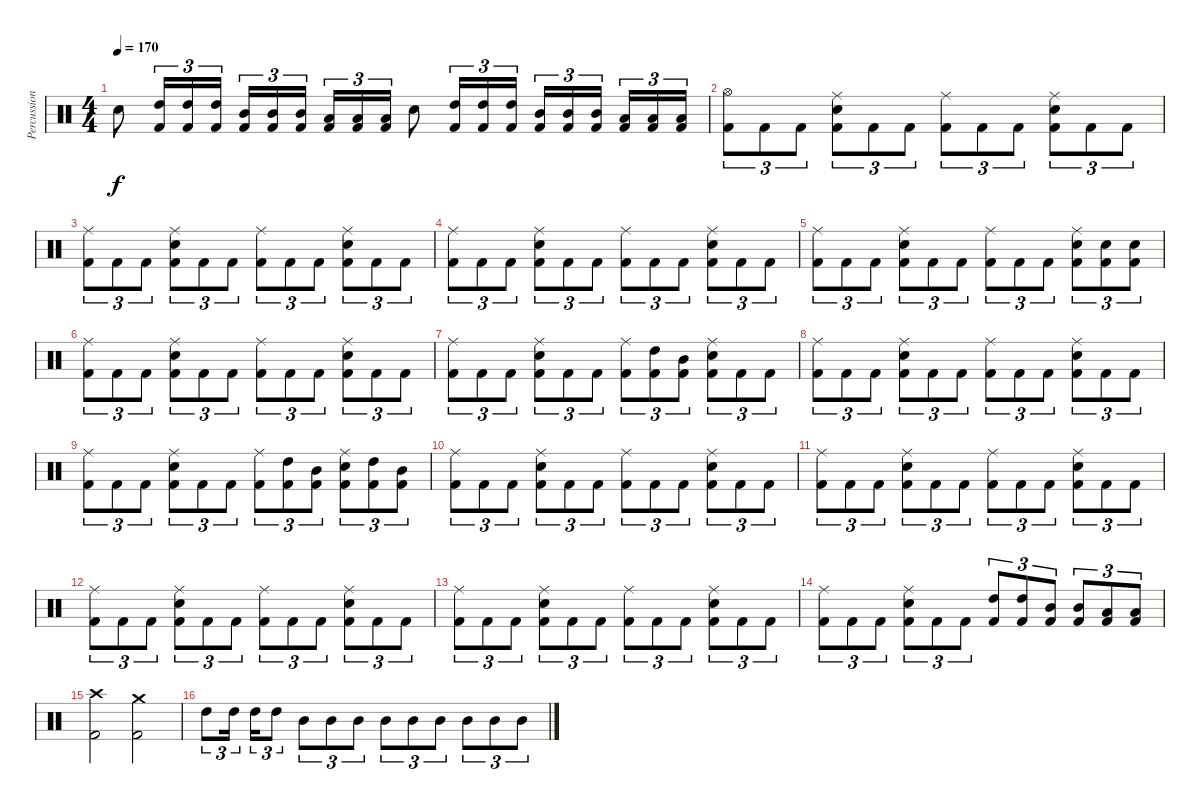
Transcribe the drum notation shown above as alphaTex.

\track ("Percussions" "Percussion") {instrument percussion}
\staff {score}
\articulation defaults
\ts (4 4)
\tempo 170
\clef neutral
\ks c "Snare (hit) 2".8{dy f}
("High Tom (hit)" "Kick (hit) 2").16{tu (3 2)} ("High Tom (hit)" "Kick (hit) 2").16{tu (3 2)} ("High Tom (hit)" "Kick (hit) 2").16{tu (3 2)} ("Mid Tom (hit)" "Kick (hit) 2").16{tu (3 2)} ("Mid Tom (hit)" "Kick (hit) 2").16{tu (3 2)} ("Mid Tom (hit)" "Kick (hit) 2").16{tu (3 2)} ("Low Tom (hit)" "Kick (hit) 2").16{tu (3 2)} ("Low Tom (hit)" "Kick (hit) 2").16{tu (3 2)} ("Low Tom (hit)" "Kick (hit) 2").16{tu (3 2)} "Snare (hit) 2".8 ("High Tom (hit)" "Kick (hit) 2").16{tu (3 2)} ("High Tom (hit)" "Kick (hit) 2").16{tu (3 2)} ("High Tom (hit)" "Kick (hit) 2").16{tu (3 2)} ("Mid Tom (hit)" "Kick (hit) 2").16{tu (3 2)} ("Mid Tom (hit)" "Kick (hit) 2").16{tu (3 2)} ("Mid Tom (hit)" "Kick (hit) 2").16{tu (3 2)} ("Low Tom (hit)" "Kick (hit) 2").16{tu (3 2)} ("Low Tom (hit)" "Kick (hit) 2").16{tu (3 2)} ("Low Tom (hit)" "Kick (hit) 2").16{tu (3 2)} |
("Hi-Hat (open)" "Kick (hit) 2").8{tu (3 2)} "Kick (hit) 2".8{tu (3 2)} "Kick (hit) 2".8{tu (3 2)} ("Ride (middle)" "Snare (hit) 2" "Kick (hit) 2").8{tu (3 2)} "Kick (hit) 2".8{tu (3 2)} "Kick (hit) 2".8{tu (3 2)} ("Ride (middle)" "Kick (hit) 2").8{tu (3 2)} "Kick (hit) 2".8{tu (3 2)} "Kick (hit) 2".8{tu (3 2)} ("Ride (middle)" "Snare (hit) 2" "Kick (hit) 2").8{tu (3 2)} "Kick (hit) 2".8{tu (3 2)} "Kick (hit) 2".8{tu (3 2)} |
("Ride (middle)" "Kick (hit) 2").8{tu (3 2)} "Kick (hit) 2".8{tu (3 2)} "Kick (hit) 2".8{tu (3 2)} ("Ride (middle)" "Snare (hit) 2" "Kick (hit) 2").8{tu (3 2)} "Kick (hit) 2".8{tu (3 2)} "Kick (hit) 2".8{tu (3 2)} ("Ride (middle)" "Kick (hit) 2").8{tu (3 2)} "Kick (hit) 2".8{tu (3 2)} "Kick (hit) 2".8{tu (3 2)} ("Ride (middle)" "Snare (hit) 2" "Kick (hit) 2").8{tu (3 2)} "Kick (hit) 2".8{tu (3 2)} "Kick (hit) 2".8{tu (3 2)} |
("Ride (middle)" "Kick (hit) 2").8{tu (3 2)} "Kick (hit) 2".8{tu (3 2)} "Kick (hit) 2".8{tu (3 2)} ("Ride (middle)" "Snare (hit) 2" "Kick (hit) 2").8{tu (3 2)} "Kick (hit) 2".8{tu (3 2)} "Kick (hit) 2".8{tu (3 2)} ("Ride (middle)" "Kick (hit) 2").8{tu (3 2)} "Kick (hit) 2".8{tu (3 2)} "Kick (hit) 2".8{tu (3 2)} ("Ride (middle)" "Snare (hit) 2" "Kick (hit) 2").8{tu (3 2)} "Kick (hit) 2".8{tu (3 2)} "Kick (hit) 2".8{tu (3 2)} |
("Ride (middle)" "Kick (hit) 2").8{tu (3 2)} "Kick (hit) 2".8{tu (3 2)} "Kick (hit) 2".8{tu (3 2)} ("Ride (middle)" "Snare (hit) 2" "Kick (hit) 2").8{tu (3 2)} "Kick (hit) 2".8{tu (3 2)} "Kick (hit) 2".8{tu (3 2)} ("Ride (middle)" "Kick (hit) 2").8{tu (3 2)} "Kick (hit) 2".8{tu (3 2)} "Kick (hit) 2".8{tu (3 2)} ("Ride (middle)" "Snare (hit) 2" "Kick (hit) 2").8{tu (3 2)} ("Snare (hit) 2" "Kick (hit) 2").8{tu (3 2)} ("Snare (hit) 2" "Kick (hit) 2").8{tu (3 2)} |
("Ride (middle)" "Kick (hit) 2").8{tu (3 2)} "Kick (hit) 2".8{tu (3 2)} "Kick (hit) 2".8{tu (3 2)} ("Ride (middle)" "Snare (hit) 2" "Kick (hit) 2").8{tu (3 2)} "Kick (hit) 2".8{tu (3 2)} "Kick (hit) 2".8{tu (3 2)} ("Ride (middle)" "Kick (hit) 2").8{tu (3 2)} "Kick (hit) 2".8{tu (3 2)} "Kick (hit) 2".8{tu (3 2)} ("Ride (middle)" "Snare (hit) 2" "Kick (hit) 2").8{tu (3 2)} "Kick (hit) 2".8{tu (3 2)} "Kick (hit) 2".8{tu (3 2)} |
("Ride (middle)" "Kick (hit) 2").8{tu (3 2)} "Kick (hit) 2".8{tu (3 2)} "Kick (hit) 2".8{tu (3 2)} ("Ride (middle)" "Snare (hit) 2" "Kick (hit) 2").8{tu (3 2)} "Kick (hit) 2".8{tu (3 2)} "Kick (hit) 2".8{tu (3 2)} ("Ride (middle)" "Kick (hit) 2").8{tu (3 2)} ("High Tom (hit)" "Kick (hit) 2").8{tu (3 2)} ("Mid Tom (hit)" "Kick (hit) 2").8{tu (3 2)} ("Ride (middle)" "Snare (hit) 2" "Kick (hit) 2").8{tu (3 2)} "Kick (hit) 2".8{tu (3 2)} "Kick (hit) 2".8{tu (3 2)} |
("Ride (middle)" "Kick (hit) 2").8{tu (3 2)} "Kick (hit) 2".8{tu (3 2)} "Kick (hit) 2".8{tu (3 2)} ("Ride (middle)" "Snare (hit) 2" "Kick (hit) 2").8{tu (3 2)} "Kick (hit) 2".8{tu (3 2)} "Kick (hit) 2".8{tu (3 2)} ("Ride (middle)" "Kick (hit) 2").8{tu (3 2)} "Kick (hit) 2".8{tu (3 2)} "Kick (hit) 2".8{tu (3 2)} ("Ride (middle)" "Snare (hit) 2" "Kick (hit) 2").8{tu (3 2)} "Kick (hit) 2".8{tu (3 2)} "Kick (hit) 2".8{tu (3 2)} |
("Ride (middle)" "Kick (hit) 2").8{tu (3 2)} "Kick (hit) 2".8{tu (3 2)} "Kick (hit) 2".8{tu (3 2)} ("Ride (middle)" "Snare (hit) 2" "Kick (hit) 2").8{tu (3 2)} "Kick (hit) 2".8{tu (3 2)} "Kick (hit) 2".8{tu (3 2)} ("Ride (middle)" "Kick (hit) 2").8{tu (3 2)} ("High Tom (hit)" "Kick (hit) 2").8{tu (3 2)} ("Mid Tom (hit)" "Kick (hit) 2").8{tu (3 2)} ("Ride (middle)" "Snare (hit) 2" "Kick (hit) 2").8{tu (3 2)} ("High Tom (hit)" "Kick (hit) 2").8{tu (3 2)} ("Mid Tom (hit)" "Kick (hit) 2").8{tu (3 2)} |
("Ride (middle)" "Kick (hit) 2").8{tu (3 2)} "Kick (hit) 2".8{tu (3 2)} "Kick (hit) 2".8{tu (3 2)} ("Ride (middle)" "Snare (hit) 2" "Kick (hit) 2").8{tu (3 2)} "Kick (hit) 2".8{tu (3 2)} "Kick (hit) 2".8{tu (3 2)} ("Ride (middle)" "Kick (hit) 2").8{tu (3 2)} "Kick (hit) 2".8{tu (3 2)} "Kick (hit) 2".8{tu (3 2)} ("Ride (middle)" "Snare (hit) 2" "Kick (hit) 2").8{tu (3 2)} "Kick (hit) 2".8{tu (3 2)} "Kick (hit) 2".8{tu (3 2)} |
("Ride (middle)" "Kick (hit) 2").8{tu (3 2)} "Kick (hit) 2".8{tu (3 2)} "Kick (hit) 2".8{tu (3 2)} ("Ride (middle)" "Snare (hit) 2" "Kick (hit) 2").8{tu (3 2)} "Kick (hit) 2".8{tu (3 2)} "Kick (hit) 2".8{tu (3 2)} ("Ride (middle)" "Kick (hit) 2").8{tu (3 2)} "Kick (hit) 2".8{tu (3 2)} "Kick (hit) 2".8{tu (3 2)} ("Ride (middle)" "Snare (hit) 2" "Kick (hit) 2").8{tu (3 2)} "Kick (hit) 2".8{tu (3 2)} "Kick (hit) 2".8{tu (3 2)} |
("Ride (middle)" "Kick (hit) 2").8{tu (3 2)} "Kick (hit) 2".8{tu (3 2)} "Kick (hit) 2".8{tu (3 2)} ("Ride (middle)" "Snare (hit) 2" "Kick (hit) 2").8{tu (3 2)} "Kick (hit) 2".8{tu (3 2)} "Kick (hit) 2".8{tu (3 2)} ("Ride (middle)" "Kick (hit) 2").8{tu (3 2)} "Kick (hit) 2".8{tu (3 2)} "Kick (hit) 2".8{tu (3 2)} ("Ride (middle)" "Snare (hit) 2" "Kick (hit) 2").8{tu (3 2)} "Kick (hit) 2".8{tu (3 2)} "Kick (hit) 2".8{tu (3 2)} |
("Ride (middle)" "Kick (hit) 2").8{tu (3 2)} "Kick (hit) 2".8{tu (3 2)} "Kick (hit) 2".8{tu (3 2)} ("Ride (middle)" "Snare (hit) 2" "Kick (hit) 2").8{tu (3 2)} "Kick (hit) 2".8{tu (3 2)} "Kick (hit) 2".8{tu (3 2)} ("Ride (middle)" "Kick (hit) 2").8{tu (3 2)} "Kick (hit) 2".8{tu (3 2)} "Kick (hit) 2".8{tu (3 2)} ("Ride (middle)" "Snare (hit) 2" "Kick (hit) 2").8{tu (3 2)} "Kick (hit) 2".8{tu (3 2)} "Kick (hit) 2".8{tu (3 2)} |
("Ride (middle)" "Kick (hit) 2").8{tu (3 2)} "Kick (hit) 2".8{tu (3 2)} "Kick (hit) 2".8{tu (3 2)} ("Ride (middle)" "Snare (hit) 2" "Kick (hit) 2").8{tu (3 2)} "Kick (hit) 2".8{tu (3 2)} "Kick (hit) 2".8{tu (3 2)} ("High Tom (hit)" "Kick (hit) 2").8{tu (3 2)} ("High Tom (hit)" "Kick (hit) 2").8{tu (3 2)} ("Mid Tom (hit)" "Kick (hit) 2").8{tu (3 2)} ("Mid Tom (hit)" "Kick (hit) 2").8{tu (3 2)} ("Low Tom (hit)" "Kick (hit) 2").8{tu (3 2)} ("Low Tom (hit)" "Kick (hit) 2").8{tu (3 2)} |
("Crash high (hit)" "Kick (hit) 2").2 ("Crash medium (hit)" "Kick (hit) 2").2 |
"High Tom (hit)".8{tu (3 2)} "High Tom (hit)".16{tu (3 2)} "High Tom (hit)".16{tu (3 2)} "High Tom (hit)".8{tu (3 2)} "Mid Tom (hit)".8{tu (3 2)} "Mid Tom (hit)".8{tu (3 2)} "Mid Tom (hit)".8{tu (3 2)} "Mid Tom (hit)".8{tu (3 2)} "Mid Tom (hit)".8{tu (3 2)} "Mid Tom (hit)".8{tu (3 2)} "Mid Tom (hit)".8{tu (3 2)} "Mid Tom (hit)".8{tu (3 2)} "Mid Tom (hit)".8{tu (3 2)}
